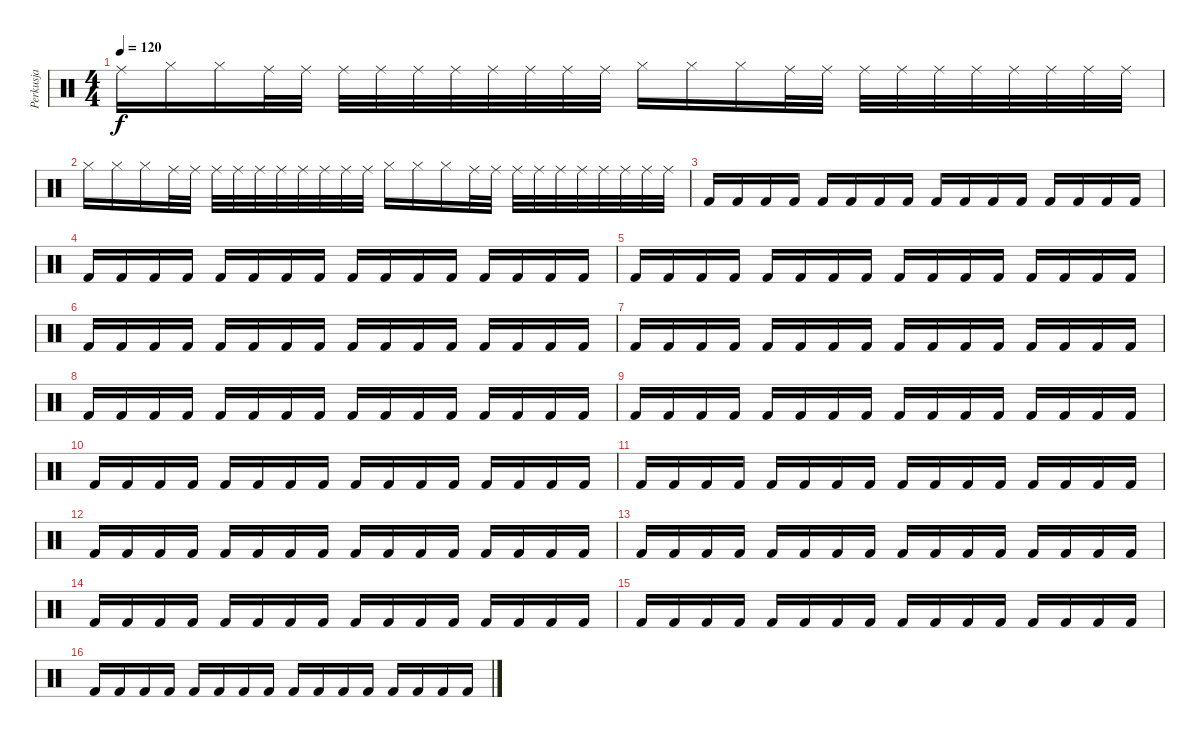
\track ("Perkusja" "Perkusja") {instrument percussion}
\staff {score}
\articulation defaults
\ts (4 4)
\tempo 120
\clef neutral
\ks c "Ride (middle)".16{dy f} "Hi-Hat (closed)".16 "Hi-Hat (closed)".16 "Ride (middle)".32 "Ride (middle)".32 "Ride (middle)".32 "Ride (middle)".32 "Ride (middle)".32 "Ride (middle)".32 "Ride (middle)".32 "Ride (middle)".32 "Ride (middle)".32 "Ride (middle)".32 "Hi-Hat (closed)".16 "Hi-Hat (closed)".16 "Hi-Hat (closed)".16 "Ride (middle)".32 "Ride (middle)".32 "Ride (middle)".32 "Ride (middle)".32 "Ride (middle)".32 "Ride (middle)".32 "Ride (middle)".32 "Ride (middle)".32 "Ride (middle)".32 "Ride (middle)".32
|
"Hi-Hat (closed)".16 "Hi-Hat (closed)".16 "Hi-Hat (closed)".16 "Ride (middle)".32 "Ride (middle)".32 "Ride (middle)".32 "Ride (middle)".32 "Ride (middle)".32 "Ride (middle)".32 "Ride (middle)".32 "Ride (middle)".32 "Ride (middle)".32 "Ride (middle)".32 "Hi-Hat (closed)".16 "Hi-Hat (closed)".16 "Hi-Hat (closed)".16 "Ride (middle)".32 "Ride (middle)".32 "Ride (middle)".32 "Ride (middle)".32 "Ride (middle)".32 "Ride (middle)".32 "Ride (middle)".32 "Ride (middle)".32 "Ride (middle)".32 "Ride (middle)".32 |
"Kick (hit) 2".16 "Kick (hit) 2".16 "Kick (hit) 2".16 "Kick (hit) 2".16 "Kick (hit) 2".16 "Kick (hit) 2".16 "Kick (hit) 2".16 "Kick (hit) 2".16 "Kick (hit) 2".16 "Kick (hit) 2".16 "Kick (hit) 2".16 "Kick (hit) 2".16 "Kick (hit) 2".16 "Kick (hit) 2".16 "Kick (hit) 2".16 "Kick (hit) 2".16 |
"Kick (hit) 2".16 "Kick (hit) 2".16 "Kick (hit) 2".16 "Kick (hit) 2".16 "Kick (hit) 2".16 "Kick (hit) 2".16 "Kick (hit) 2".16 "Kick (hit) 2".16 "Kick (hit) 2".16 "Kick (hit) 2".16 "Kick (hit) 2".16 "Kick (hit) 2".16 "Kick (hit) 2".16 "Kick (hit) 2".16 "Kick (hit) 2".16 "Kick (hit) 2".16 |
"Kick (hit) 2".16 "Kick (hit) 2".16 "Kick (hit) 2".16 "Kick (hit) 2".16 "Kick (hit) 2".16 "Kick (hit) 2".16 "Kick (hit) 2".16 "Kick (hit) 2".16 "Kick (hit) 2".16 "Kick (hit) 2".16 "Kick (hit) 2".16 "Kick (hit) 2".16 "Kick (hit) 2".16 "Kick (hit) 2".16 "Kick (hit) 2".16 "Kick (hit) 2".16 |
"Kick (hit) 2".16 "Kick (hit) 2".16 "Kick (hit) 2".16 "Kick (hit) 2".16 "Kick (hit) 2".16 "Kick (hit) 2".16 "Kick (hit) 2".16 "Kick (hit) 2".16 "Kick (hit) 2".16 "Kick (hit) 2".16 "Kick (hit) 2".16 "Kick (hit) 2".16 "Kick (hit) 2".16 "Kick (hit) 2".16 "Kick (hit) 2".16 "Kick (hit) 2".16 |
"Kick (hit) 2".16 "Kick (hit) 2".16 "Kick (hit) 2".16 "Kick (hit) 2".16 "Kick (hit) 2".16 "Kick (hit) 2".16 "Kick (hit) 2".16 "Kick (hit) 2".16 "Kick (hit) 2".16 "Kick (hit) 2".16 "Kick (hit) 2".16 "Kick (hit) 2".16 "Kick (hit) 2".16 "Kick (hit) 2".16 "Kick (hit) 2".16 "Kick (hit) 2".16 |
"Kick (hit) 2".16 "Kick (hit) 2".16 "Kick (hit) 2".16 "Kick (hit) 2".16 "Kick (hit) 2".16 "Kick (hit) 2".16 "Kick (hit) 2".16 "Kick (hit) 2".16 "Kick (hit) 2".16 "Kick (hit) 2".16 "Kick (hit) 2".16 "Kick (hit) 2".16 "Kick (hit) 2".16 "Kick (hit) 2".16 "Kick (hit) 2".16 "Kick (hit) 2".16 |
"Kick (hit) 2".16 "Kick (hit) 2".16 "Kick (hit) 2".16 "Kick (hit) 2".16 "Kick (hit) 2".16 "Kick (hit) 2".16 "Kick (hit) 2".16 "Kick (hit) 2".16 "Kick (hit) 2".16 "Kick (hit) 2".16 "Kick (hit) 2".16 "Kick (hit) 2".16 "Kick (hit) 2".16 "Kick (hit) 2".16 "Kick (hit) 2".16 "Kick (hit) 2".16 |
"Kick (hit) 2".16 "Kick (hit) 2".16 "Kick (hit) 2".16 "Kick (hit) 2".16 "Kick (hit) 2".16 "Kick (hit) 2".16 "Kick (hit) 2".16 "Kick (hit) 2".16 "Kick (hit) 2".16 "Kick (hit) 2".16 "Kick (hit) 2".16 "Kick (hit) 2".16 "Kick (hit) 2".16 "Kick (hit) 2".16 "Kick (hit) 2".16 "Kick (hit) 2".16 |
"Kick (hit) 2".16 "Kick (hit) 2".16 "Kick (hit) 2".16 "Kick (hit) 2".16 "Kick (hit) 2".16 "Kick (hit) 2".16 "Kick (hit) 2".16 "Kick (hit) 2".16 "Kick (hit) 2".16 "Kick (hit) 2".16 "Kick (hit) 2".16 "Kick (hit) 2".16 "Kick (hit) 2".16 "Kick (hit) 2".16 "Kick (hit) 2".16 "Kick (hit) 2".16 |
"Kick (hit) 2".16 "Kick (hit) 2".16 "Kick (hit) 2".16 "Kick (hit) 2".16 "Kick (hit) 2".16 "Kick (hit) 2".16 "Kick (hit) 2".16 "Kick (hit) 2".16 "Kick (hit) 2".16 "Kick (hit) 2".16 "Kick (hit) 2".16 "Kick (hit) 2".16 "Kick (hit) 2".16 "Kick (hit) 2".16 "Kick (hit) 2".16 "Kick (hit) 2".16 |
"Kick (hit) 2".16 "Kick (hit) 2".16 "Kick (hit) 2".16 "Kick (hit) 2".16 "Kick (hit) 2".16 "Kick (hit) 2".16 "Kick (hit) 2".16 "Kick (hit) 2".16 "Kick (hit) 2".16 "Kick (hit) 2".16 "Kick (hit) 2".16 "Kick (hit) 2".16 "Kick (hit) 2".16 "Kick (hit) 2".16 "Kick (hit) 2".16 "Kick (hit) 2".16 |
"Kick (hit) 2".16 "Kick (hit) 2".16 "Kick (hit) 2".16 "Kick (hit) 2".16 "Kick (hit) 2".16 "Kick (hit) 2".16 "Kick (hit) 2".16 "Kick (hit) 2".16 "Kick (hit) 2".16 "Kick (hit) 2".16 "Kick (hit) 2".16 "Kick (hit) 2".16 "Kick (hit) 2".16 "Kick (hit) 2".16 "Kick (hit) 2".16 "Kick (hit) 2".16 |
"Kick (hit) 2".16 "Kick (hit) 2".16 "Kick (hit) 2".16 "Kick (hit) 2".16 "Kick (hit) 2".16 "Kick (hit) 2".16 "Kick (hit) 2".16 "Kick (hit) 2".16 "Kick (hit) 2".16 "Kick (hit) 2".16 "Kick (hit) 2".16 "Kick (hit) 2".16 "Kick (hit) 2".16 "Kick (hit) 2".16 "Kick (hit) 2".16 "Kick (hit) 2".16 |
"Kick (hit) 2".16 "Kick (hit) 2".16 "Kick (hit) 2".16 "Kick (hit) 2".16 "Kick (hit) 2".16 "Kick (hit) 2".16 "Kick (hit) 2".16 "Kick (hit) 2".16 "Kick (hit) 2".16 "Kick (hit) 2".16 "Kick (hit) 2".16 "Kick (hit) 2".16 "Kick (hit) 2".16 "Kick (hit) 2".16 "Kick (hit) 2".16 "Kick (hit) 2".16
